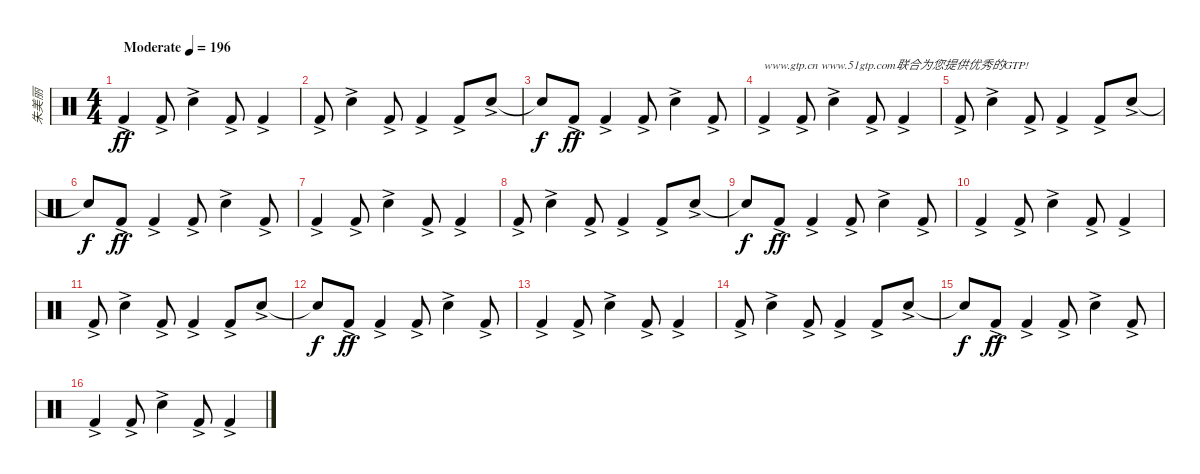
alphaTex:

\track ("朱美丽" "朱美丽") {instrument percussion}
\staff {score}
\articulation defaults
\ts (4 4)
\tempo (196 "Moderate")
\clef neutral
\ks c "Kick (hit) 2"{ac}.4{dy ff} "Kick (hit) 2"{ac}.8 "Electric Snare (hit)"{ac}.4 "Kick (hit) 2"{ac}.8 "Kick (hit) 2"{ac}.4
|
"Kick (hit) 2"{ac}.8 "Electric Snare (hit)"{ac}.4 "Kick (hit) 2"{ac}.8 "Kick (hit) 2"{ac}.4 "Kick (hit) 2"{ac}.8 "Electric Snare (hit)"{ac}.8 |
"Snare (hit)"{t}.8{dy f} "Kick (hit) 2"{ac}.8{dy ff} "Kick (hit) 2"{ac}.4 "Kick (hit) 2"{ac}.8 "Electric Snare (hit)"{ac}.4 "Kick (hit) 2"{ac}.8 |
"Kick (hit) 2"{ac}.4{txt "www.gtp.cn www.51gtp.com联合为您提供优秀的GTP!"} "Kick (hit) 2"{ac}.8 "Electric Snare (hit)"{ac}.4 "Kick (hit) 2"{ac}.8 "Kick (hit) 2"{ac}.4 |
"Kick (hit) 2"{ac}.8 "Electric Snare (hit)"{ac}.4 "Kick (hit) 2"{ac}.8 "Kick (hit) 2"{ac}.4 "Kick (hit) 2"{ac}.8 "Electric Snare (hit)"{ac}.8 |
"Snare (hit)"{t}.8{dy f} "Kick (hit) 2"{ac}.8{dy ff} "Kick (hit) 2"{ac}.4 "Kick (hit) 2"{ac}.8 "Electric Snare (hit)"{ac}.4 "Kick (hit) 2"{ac}.8 |
"Kick (hit) 2"{ac}.4 "Kick (hit) 2"{ac}.8 "Electric Snare (hit)"{ac}.4 "Kick (hit) 2"{ac}.8 "Kick (hit) 2"{ac}.4 |
"Kick (hit) 2"{ac}.8 "Electric Snare (hit)"{ac}.4 "Kick (hit) 2"{ac}.8 "Kick (hit) 2"{ac}.4 "Kick (hit) 2"{ac}.8 "Electric Snare (hit)"{ac}.8 |
"Snare (hit)"{t}.8{dy f} "Kick (hit) 2"{ac}.8{dy ff} "Kick (hit) 2"{ac}.4 "Kick (hit) 2"{ac}.8 "Electric Snare (hit)"{ac}.4 "Kick (hit) 2"{ac}.8 |
"Kick (hit) 2"{ac}.4 "Kick (hit) 2"{ac}.8 "Electric Snare (hit)"{ac}.4 "Kick (hit) 2"{ac}.8 "Kick (hit) 2"{ac}.4 |
"Kick (hit) 2"{ac}.8 "Electric Snare (hit)"{ac}.4 "Kick (hit) 2"{ac}.8 "Kick (hit) 2"{ac}.4 "Kick (hit) 2"{ac}.8 "Electric Snare (hit)"{ac}.8 |
"Snare (hit)"{t}.8{dy f} "Kick (hit) 2"{ac}.8{dy ff} "Kick (hit) 2"{ac}.4 "Kick (hit) 2"{ac}.8 "Electric Snare (hit)"{ac}.4 "Kick (hit) 2"{ac}.8 |
"Kick (hit) 2"{ac}.4 "Kick (hit) 2"{ac}.8 "Electric Snare (hit)"{ac}.4 "Kick (hit) 2"{ac}.8 "Kick (hit) 2"{ac}.4 |
"Kick (hit) 2"{ac}.8 "Electric Snare (hit)"{ac}.4 "Kick (hit) 2"{ac}.8 "Kick (hit) 2"{ac}.4 "Kick (hit) 2"{ac}.8 "Electric Snare (hit)"{ac}.8 |
"Snare (hit)"{t}.8{dy f} "Kick (hit) 2"{ac}.8{dy ff} "Kick (hit) 2"{ac}.4 "Kick (hit) 2"{ac}.8 "Electric Snare (hit)"{ac}.4 "Kick (hit) 2"{ac}.8 |
"Kick (hit) 2"{ac}.4 "Kick (hit) 2"{ac}.8 "Electric Snare (hit)"{ac}.4 "Kick (hit) 2"{ac}.8 "Kick (hit) 2"{ac}.4
